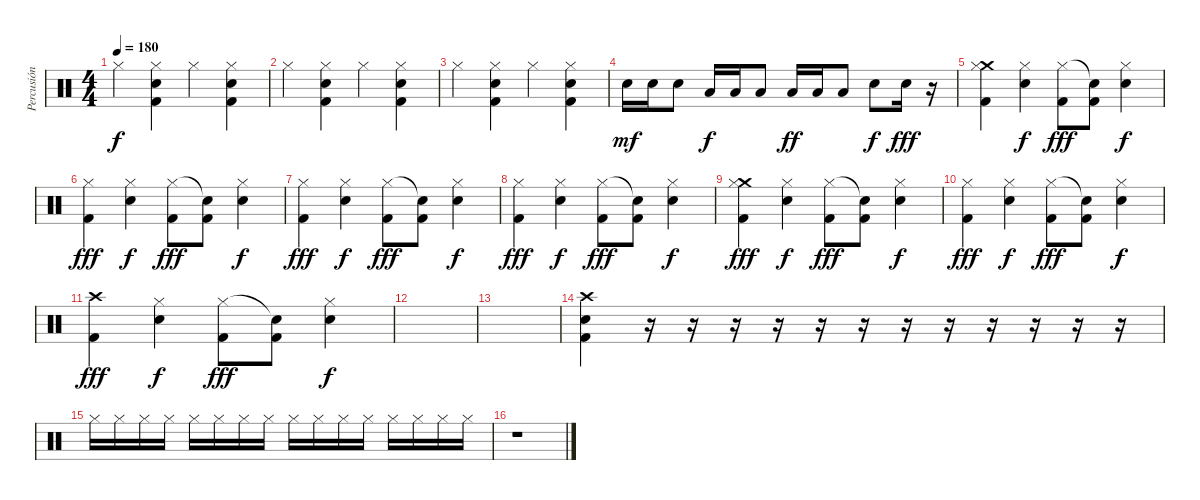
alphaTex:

\track ("Percusión" "Percusión") {instrument percussion}
\staff {score}
\articulation defaults
\ts (4 4)
\tempo 180
\clef neutral
\ks c "Hi-Hat (closed)".4{dy f}
("Snare (hit) 2" "Hi-Hat (closed)" "Kick (hit) 2").4 "Hi-Hat (closed)".4 ("Snare (hit) 2" "Hi-Hat (closed)" "Kick (hit) 2").4 |
"Hi-Hat (closed)".4 ("Snare (hit) 2" "Hi-Hat (closed)" "Kick (hit) 2").4 "Hi-Hat (closed)".4 ("Snare (hit) 2" "Hi-Hat (closed)" "Kick (hit) 2").4 |
"Hi-Hat (closed)".4 ("Snare (hit) 2" "Hi-Hat (closed)" "Kick (hit) 2").4 "Hi-Hat (closed)".4 ("Snare (hit) 2" "Hi-Hat (closed)" "Kick (hit) 2").4 |
"Snare (hit) 2".16{dy mf} "Snare (hit) 2".16 "Snare (hit) 2".8 "Low Tom (hit)".16{dy f} "Low Tom (hit)".16 "Low Tom (hit)".8 "Low Floor Tom (hit)".16{dy ff} "Low Floor Tom (hit)".16 "Low Floor Tom (hit)".8 "Electric Snare (hit)".8{dy f} "Electric Snare (hit)".16{dy fff} r.16 |
("Crash medium (hit)" "Hi-Hat (closed)" "Kick (hit) 2").4 ("Snare (hit) 2" "Hi-Hat (closed)").4{dy f} ("Hi-Hat (closed)" "Kick (hit) 2").8{dy fff} ("Snare (hit)"{t} "Kick (hit) 2").8 ("Snare (hit) 2" "Hi-Hat (closed)").4{dy f} |
("Hi-Hat (closed)" "Kick (hit) 2").4{dy fff} ("Snare (hit) 2" "Hi-Hat (closed)").4{dy f} ("Hi-Hat (closed)" "Kick (hit) 2").8{dy fff} ("Snare (hit)"{t} "Kick (hit) 2").8 ("Snare (hit) 2" "Hi-Hat (closed)").4{dy f} |
("Hi-Hat (closed)" "Kick (hit) 2").4{dy fff} ("Snare (hit) 2" "Hi-Hat (closed)").4{dy f} ("Hi-Hat (closed)" "Kick (hit) 2").8{dy fff} ("Snare (hit)"{t} "Kick (hit) 2").8 ("Snare (hit) 2" "Hi-Hat (closed)").4{dy f} |
("Hi-Hat (closed)" "Kick (hit) 2").4{dy fff} ("Snare (hit) 2" "Hi-Hat (closed)").4{dy f} ("Hi-Hat (closed)" "Kick (hit) 2").8{dy fff} ("Snare (hit)"{t} "Kick (hit) 2").8 ("Snare (hit) 2" "Hi-Hat (closed)").4{dy f} |
("Crash medium (hit)" "Hi-Hat (closed)" "Kick (hit) 2").4{dy fff} ("Snare (hit) 2" "Hi-Hat (closed)").4{dy f} ("Hi-Hat (closed)" "Kick (hit) 2").8{dy fff} ("Snare (hit)"{t} "Kick (hit) 2").8 ("Snare (hit) 2" "Hi-Hat (closed)").4{dy f} |
("Hi-Hat (closed)" "Kick (hit) 2").4{dy fff} ("Snare (hit) 2" "Hi-Hat (closed)").4{dy f} ("Hi-Hat (closed)" "Kick (hit) 2").8{dy fff} ("Snare (hit)"{t} "Kick (hit) 2").8 ("Snare (hit) 2" "Hi-Hat (closed)").4{dy f} |
("Crash high (hit)" "Kick (hit) 2").4{dy fff} ("Snare (hit) 2" "Hi-Hat (closed)").4{dy f} ("Hi-Hat (closed)" "Kick (hit) 2").8{dy fff} ("Snare (hit)"{t} "Kick (hit) 2").8 ("Snare (hit) 2" "Hi-Hat (closed)").4{dy f} |
|
|
("Kick (hit) 2" "Snare (hit) 2" "Crash high (hit)").4 r.16 r.16 r.16 r.16 r.16 r.16 r.16 r.16 r.16 r.16 r.16 r.16{volume 0} |
"Hi-Hat (closed)".16{volume 16} "Hi-Hat (closed)".16 "Hi-Hat (closed)".16 "Hi-Hat (closed)".16 "Hi-Hat (closed)".16 "Hi-Hat (closed)".16 "Hi-Hat (closed)".16 "Hi-Hat (closed)".16 "Hi-Hat (closed)".16{volume 0} "Hi-Hat (closed)".16 "Hi-Hat (closed)".16 "Hi-Hat (closed)".16 "Hi-Hat (closed)".16 "Hi-Hat (closed)".16 "Hi-Hat (closed)".16 "Hi-Hat (closed)".16 |
r.1
